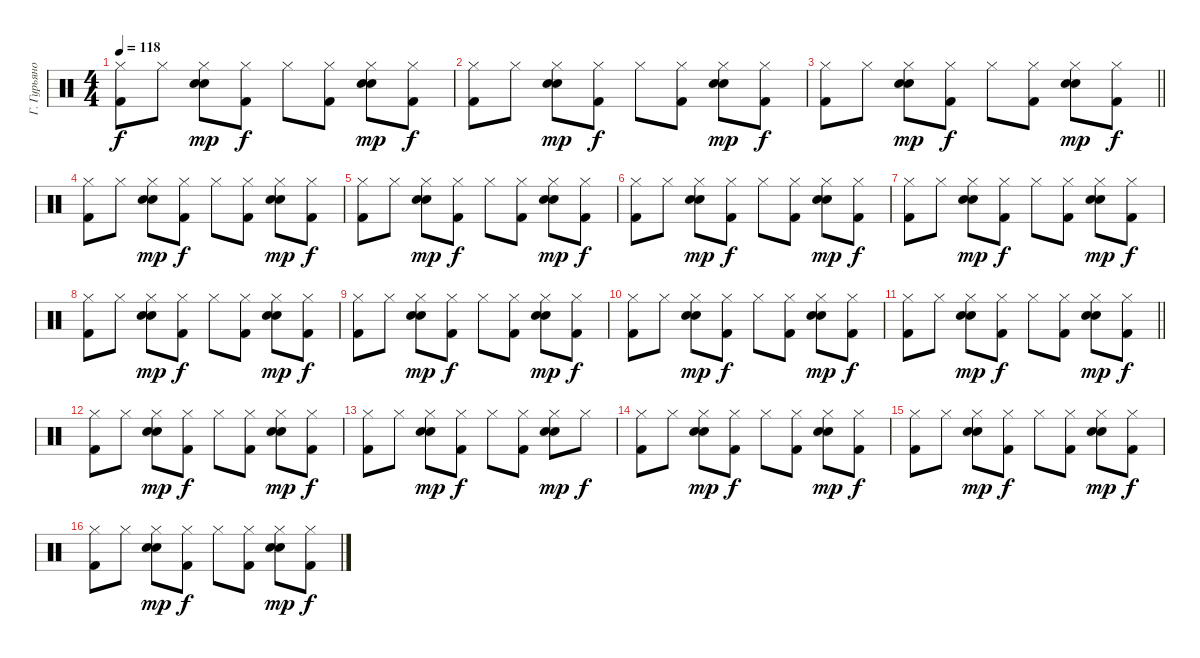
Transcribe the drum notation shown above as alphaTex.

\track ("Г. Гурьянов" "Г. Гурьяно") {instrument percussion}
\staff
\articulation defaults
\ts (4 4)
\tempo 118
\clef neutral
\ks c
("Hi-Hat (closed)" "Kick (hit) 2").8{dy f} "Hi-Hat (closed)".8 ("Hi-Hat (closed)" "Electric Snare (hit)" "Snare (hit) 2").8{dy mp} ("Hi-Hat (closed)" "Kick (hit) 2").8{dy f} "Hi-Hat (closed)".8 ("Hi-Hat (closed)" "Kick (hit) 2").8 ("Hi-Hat (closed)" "Electric Snare (hit)" "Snare (hit) 2").8{dy mp} ("Hi-Hat (closed)" "Kick (hit) 2").8{dy f} |
("Hi-Hat (closed)" "Kick (hit) 2").8 "Hi-Hat (closed)".8 ("Hi-Hat (closed)" "Electric Snare (hit)" "Snare (hit) 2").8{dy mp} ("Hi-Hat (closed)" "Kick (hit) 2").8{dy f} "Hi-Hat (closed)".8 ("Hi-Hat (closed)" "Kick (hit) 2").8 ("Hi-Hat (closed)" "Electric Snare (hit)" "Snare (hit) 2").8{dy mp} ("Hi-Hat (closed)" "Kick (hit) 2").8{dy f} |
\barLineRight lightlight
("Hi-Hat (closed)" "Kick (hit) 2").8 "Hi-Hat (closed)".8 ("Hi-Hat (closed)" "Electric Snare (hit)" "Snare (hit) 2").8{dy mp} ("Hi-Hat (closed)" "Kick (hit) 2").8{dy f} "Hi-Hat (closed)".8 ("Hi-Hat (closed)" "Kick (hit) 2").8 ("Hi-Hat (closed)" "Electric Snare (hit)" "Snare (hit) 2").8{dy mp} ("Hi-Hat (closed)" "Kick (hit) 2").8{dy f} |
("Hi-Hat (closed)" "Kick (hit) 2").8 "Hi-Hat (closed)".8 ("Hi-Hat (closed)" "Electric Snare (hit)" "Snare (hit) 2").8{dy mp} ("Hi-Hat (closed)" "Kick (hit) 2").8{dy f} "Hi-Hat (closed)".8 ("Hi-Hat (closed)" "Kick (hit) 2").8 ("Hi-Hat (closed)" "Electric Snare (hit)" "Snare (hit) 2").8{dy mp} ("Hi-Hat (closed)" "Kick (hit) 2").8{dy f} |
("Hi-Hat (closed)" "Kick (hit) 2").8 "Hi-Hat (closed)".8 ("Hi-Hat (closed)" "Electric Snare (hit)" "Snare (hit) 2").8{dy mp} ("Hi-Hat (closed)" "Kick (hit) 2").8{dy f} "Hi-Hat (closed)".8 ("Hi-Hat (closed)" "Kick (hit) 2").8 ("Hi-Hat (closed)" "Electric Snare (hit)" "Snare (hit) 2").8{dy mp} ("Hi-Hat (closed)" "Kick (hit) 2").8{dy f} |
("Hi-Hat (closed)" "Kick (hit) 2").8 "Hi-Hat (closed)".8 ("Hi-Hat (closed)" "Electric Snare (hit)" "Snare (hit) 2").8{dy mp} ("Hi-Hat (closed)" "Kick (hit) 2").8{dy f} "Hi-Hat (closed)".8 ("Hi-Hat (closed)" "Kick (hit) 2").8 ("Hi-Hat (closed)" "Electric Snare (hit)" "Snare (hit) 2").8{dy mp} ("Hi-Hat (closed)" "Kick (hit) 2").8{dy f} |
("Hi-Hat (closed)" "Kick (hit) 2").8 "Hi-Hat (closed)".8 ("Hi-Hat (closed)" "Electric Snare (hit)" "Snare (hit) 2").8{dy mp} ("Hi-Hat (closed)" "Kick (hit) 2").8{dy f} "Hi-Hat (closed)".8 ("Hi-Hat (closed)" "Kick (hit) 2").8 ("Hi-Hat (closed)" "Electric Snare (hit)" "Snare (hit) 2").8{dy mp} ("Hi-Hat (closed)" "Kick (hit) 2").8{dy f} |
("Hi-Hat (closed)" "Kick (hit) 2").8 "Hi-Hat (closed)".8 ("Hi-Hat (closed)" "Electric Snare (hit)" "Snare (hit) 2").8{dy mp} ("Hi-Hat (closed)" "Kick (hit) 2").8{dy f} "Hi-Hat (closed)".8 ("Hi-Hat (closed)" "Kick (hit) 2").8 ("Hi-Hat (closed)" "Electric Snare (hit)" "Snare (hit) 2").8{dy mp} ("Hi-Hat (closed)" "Kick (hit) 2").8{dy f} |
("Hi-Hat (closed)" "Kick (hit) 2").8 "Hi-Hat (closed)".8 ("Hi-Hat (closed)" "Electric Snare (hit)" "Snare (hit) 2").8{dy mp} ("Hi-Hat (closed)" "Kick (hit) 2").8{dy f} "Hi-Hat (closed)".8 ("Hi-Hat (closed)" "Kick (hit) 2").8 ("Hi-Hat (closed)" "Electric Snare (hit)" "Snare (hit) 2").8{dy mp} ("Hi-Hat (closed)" "Kick (hit) 2").8{dy f} |
("Hi-Hat (closed)" "Kick (hit) 2").8 "Hi-Hat (closed)".8 ("Hi-Hat (closed)" "Electric Snare (hit)" "Snare (hit) 2").8{dy mp} ("Hi-Hat (closed)" "Kick (hit) 2").8{dy f} "Hi-Hat (closed)".8 ("Hi-Hat (closed)" "Kick (hit) 2").8 ("Hi-Hat (closed)" "Electric Snare (hit)" "Snare (hit) 2").8{dy mp} ("Hi-Hat (closed)" "Kick (hit) 2").8{dy f} |
\barLineRight lightlight
("Hi-Hat (closed)" "Kick (hit) 2").8 "Hi-Hat (closed)".8 ("Hi-Hat (closed)" "Electric Snare (hit)" "Snare (hit) 2").8{dy mp} ("Hi-Hat (closed)" "Kick (hit) 2").8{dy f} "Hi-Hat (closed)".8 ("Hi-Hat (closed)" "Kick (hit) 2").8 ("Hi-Hat (closed)" "Electric Snare (hit)" "Snare (hit) 2").8{dy mp} ("Hi-Hat (closed)" "Kick (hit) 2").8{dy f} |
("Hi-Hat (closed)" "Kick (hit) 2").8 "Hi-Hat (closed)".8 ("Hi-Hat (closed)" "Electric Snare (hit)" "Snare (hit) 2").8{dy mp} ("Hi-Hat (closed)" "Kick (hit) 2").8{dy f} "Hi-Hat (closed)".8 ("Hi-Hat (closed)" "Kick (hit) 2").8 ("Hi-Hat (closed)" "Electric Snare (hit)" "Snare (hit) 2").8{dy mp} ("Hi-Hat (closed)" "Kick (hit) 2").8{dy f} |
("Hi-Hat (closed)" "Kick (hit) 2").8 "Hi-Hat (closed)".8 ("Hi-Hat (closed)" "Electric Snare (hit)" "Snare (hit) 2").8{dy mp} ("Hi-Hat (closed)" "Kick (hit) 2").8{dy f} "Hi-Hat (closed)".8 ("Hi-Hat (closed)" "Kick (hit) 2").8 ("Hi-Hat (closed)" "Electric Snare (hit)" "Snare (hit) 2").8{dy mp} "Hi-Hat (closed)".8{dy f} |
("Hi-Hat (closed)" "Kick (hit) 2").8 "Hi-Hat (closed)".8 ("Hi-Hat (closed)" "Electric Snare (hit)" "Snare (hit) 2").8{dy mp} ("Hi-Hat (closed)" "Kick (hit) 2").8{dy f} "Hi-Hat (closed)".8 ("Hi-Hat (closed)" "Kick (hit) 2").8 ("Hi-Hat (closed)" "Electric Snare (hit)" "Snare (hit) 2").8{dy mp} ("Hi-Hat (closed)" "Kick (hit) 2").8{dy f} |
("Hi-Hat (closed)" "Kick (hit) 2").8 "Hi-Hat (closed)".8 ("Hi-Hat (closed)" "Electric Snare (hit)" "Snare (hit) 2").8{dy mp} ("Hi-Hat (closed)" "Kick (hit) 2").8{dy f} "Hi-Hat (closed)".8 ("Hi-Hat (closed)" "Kick (hit) 2").8 ("Hi-Hat (closed)" "Electric Snare (hit)" "Snare (hit) 2").8{dy mp} ("Hi-Hat (closed)" "Kick (hit) 2").8{dy f} |
("Hi-Hat (closed)" "Kick (hit) 2").8 "Hi-Hat (closed)".8 ("Hi-Hat (closed)" "Electric Snare (hit)" "Snare (hit) 2").8{dy mp} ("Hi-Hat (closed)" "Kick (hit) 2").8{dy f} "Hi-Hat (closed)".8 ("Hi-Hat (closed)" "Kick (hit) 2").8 ("Hi-Hat (closed)" "Electric Snare (hit)" "Snare (hit) 2").8{dy mp} ("Hi-Hat (closed)" "Kick (hit) 2").8{dy f}
